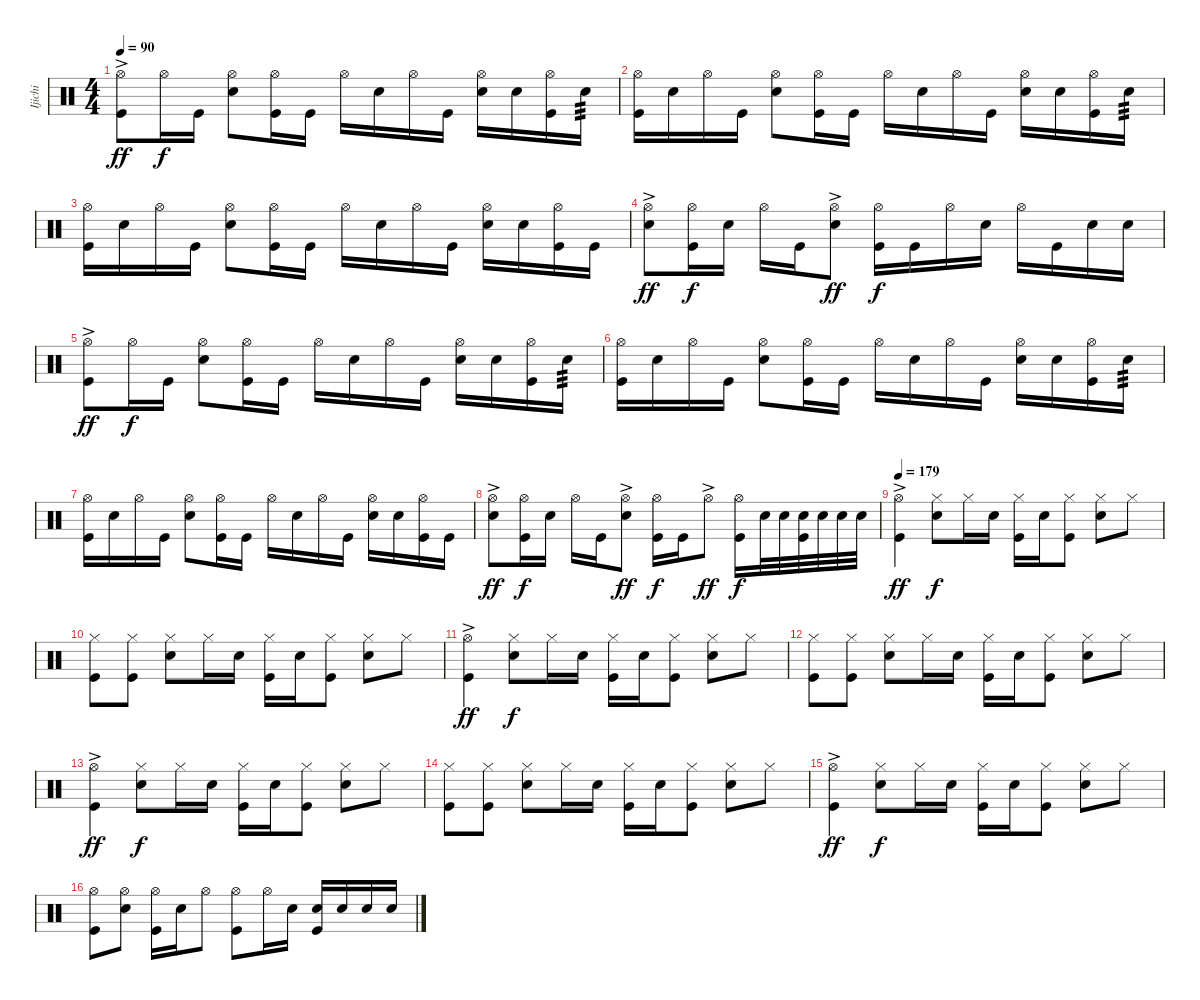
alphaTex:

\track ("Ijichi" "Ijichi") {instrument percussion}
\staff {score}
\articulation defaults
\ts (4 4)
\tempo 90
\clef neutral
\ks c
("Hi-Hat (open)"{ac} "Kick (hit)").8{dy ff} "Hi-Hat (open)".16{dy f} "Kick (hit)".16 ("Hi-Hat (open)" "Snare (hit) 2").8 ("Hi-Hat (open)" "Kick (hit)").16 "Kick (hit)".16 "Hi-Hat (open)".16 "Snare (hit) 2".16 "Hi-Hat (open)".16 "Kick (hit)".16 ("Hi-Hat (open)" "Snare (hit) 2").16 "Snare (hit) 2".16 ("Hi-Hat (open)" "Kick (hit)").16 "Snare (hit) 2".16{tp 3} |
("Hi-Hat (open)" "Kick (hit)").16 "Snare (hit) 2".16 "Hi-Hat (open)".16 "Kick (hit)".16 ("Hi-Hat (open)" "Snare (hit) 2").8 ("Hi-Hat (open)" "Kick (hit)").16 "Kick (hit)".16 "Hi-Hat (open)".16 "Snare (hit) 2".16 "Hi-Hat (open)".16 "Kick (hit)".16 ("Hi-Hat (open)" "Snare (hit) 2").16 "Snare (hit) 2".16 ("Hi-Hat (open)" "Kick (hit)").16 "Snare (hit) 2".16{tp 3} |
("Hi-Hat (open)" "Kick (hit)").16 "Snare (hit) 2".16 "Hi-Hat (open)".16 "Kick (hit)".16 ("Hi-Hat (open)" "Snare (hit) 2").8 ("Hi-Hat (open)" "Kick (hit)").16 "Kick (hit)".16 "Hi-Hat (open)".16 "Snare (hit) 2".16 "Hi-Hat (open)".16 "Kick (hit)".16 ("Hi-Hat (open)" "Snare (hit) 2").16 "Snare (hit) 2".16 ("Hi-Hat (open)" "Kick (hit)").16 "Kick (hit)".16 |
("Hi-Hat (open)"{ac} "Snare (hit) 2").8{dy ff} ("Hi-Hat (open)" "Kick (hit)").16{dy f} "Snare (hit) 2".16 "Hi-Hat (open)".16 "Kick (hit)".16 ("Hi-Hat (open)"{ac} "Snare (hit) 2").8{dy ff} ("Hi-Hat (open)" "Kick (hit)").16{dy f} "Kick (hit)".16 "Hi-Hat (open)".16 "Snare (hit) 2".16 "Hi-Hat (open)".16 "Kick (hit)".16 "Snare (hit) 2".16 "Snare (hit) 2".16 |
("Hi-Hat (open)"{ac} "Kick (hit)").8{dy ff} "Hi-Hat (open)".16{dy f} "Kick (hit)".16 ("Hi-Hat (open)" "Snare (hit) 2").8 ("Hi-Hat (open)" "Kick (hit)").16 "Kick (hit)".16 "Hi-Hat (open)".16 "Snare (hit) 2".16 "Hi-Hat (open)".16 "Kick (hit)".16 ("Hi-Hat (open)" "Snare (hit) 2").16 "Snare (hit) 2".16 ("Hi-Hat (open)" "Kick (hit)").16 "Snare (hit) 2".16{tp 3} |
("Hi-Hat (open)" "Kick (hit)").16 "Snare (hit) 2".16 "Hi-Hat (open)".16 "Kick (hit)".16 ("Hi-Hat (open)" "Snare (hit) 2").8 ("Hi-Hat (open)" "Kick (hit)").16 "Kick (hit)".16 "Hi-Hat (open)".16 "Snare (hit) 2".16 "Hi-Hat (open)".16 "Kick (hit)".16 ("Hi-Hat (open)" "Snare (hit) 2").16 "Snare (hit) 2".16 ("Hi-Hat (open)" "Kick (hit)").16 "Snare (hit) 2".16{tp 3} |
("Hi-Hat (open)" "Kick (hit)").16 "Snare (hit) 2".16 "Hi-Hat (open)".16 "Kick (hit)".16 ("Hi-Hat (open)" "Snare (hit) 2").8 ("Hi-Hat (open)" "Kick (hit)").16 "Kick (hit)".16 "Hi-Hat (open)".16 "Snare (hit) 2".16 "Hi-Hat (open)".16 "Kick (hit)".16 ("Hi-Hat (open)" "Snare (hit) 2").16 "Snare (hit) 2".16 ("Hi-Hat (open)" "Kick (hit)").16 "Kick (hit)".16 |
("Hi-Hat (open)"{ac} "Snare (hit) 2").8{dy ff} ("Hi-Hat (open)" "Kick (hit)").16{dy f} "Snare (hit) 2".16 "Hi-Hat (open)".16 "Kick (hit)".16 ("Hi-Hat (open)"{ac} "Snare (hit) 2").8{dy ff} ("Hi-Hat (open)" "Kick (hit)").16{dy f} "Kick (hit)".16 "Hi-Hat (open)"{ac}.8{dy ff} ("Hi-Hat (open)" "Kick (hit)").16{dy f} "Snare (hit) 2".32 "Snare (hit) 2".32 ("Snare (hit) 2" "Kick (hit)").32 "Snare (hit) 2".32 "Snare (hit) 2".32 "Snare (hit) 2".32 |
\tempo 179
("Hi-Hat (open)"{ac} "Kick (hit)").4{dy ff} ("Hi-Hat (closed)" "Snare (hit) 2").8{dy f} "Hi-Hat (closed)".16 "Snare (hit) 2".16 ("Hi-Hat (closed)" "Kick (hit)").16 "Snare (hit) 2".16 ("Hi-Hat (closed)" "Kick (hit)").8 ("Hi-Hat (closed)" "Snare (hit) 2").8 "Hi-Hat (closed)".8 |
("Hi-Hat (closed)" "Kick (hit)").8 ("Hi-Hat (closed)" "Kick (hit)").8 ("Hi-Hat (closed)" "Snare (hit) 2").8 "Hi-Hat (closed)".16 "Snare (hit) 2".16 ("Hi-Hat (closed)" "Kick (hit)").16 "Snare (hit) 2".16 ("Hi-Hat (closed)" "Kick (hit)").8 ("Hi-Hat (closed)" "Snare (hit) 2").8 "Hi-Hat (closed)".8 |
("Hi-Hat (open)"{ac} "Kick (hit)").4{dy ff} ("Hi-Hat (closed)" "Snare (hit) 2").8{dy f} "Hi-Hat (closed)".16 "Snare (hit) 2".16 ("Hi-Hat (closed)" "Kick (hit)").16 "Snare (hit) 2".16 ("Hi-Hat (closed)" "Kick (hit)").8 ("Hi-Hat (closed)" "Snare (hit) 2").8 "Hi-Hat (closed)".8 |
("Hi-Hat (closed)" "Kick (hit)").8 ("Hi-Hat (closed)" "Kick (hit)").8 ("Hi-Hat (closed)" "Snare (hit) 2").8 "Hi-Hat (closed)".16 "Snare (hit) 2".16 ("Hi-Hat (closed)" "Kick (hit)").16 "Snare (hit) 2".16 ("Hi-Hat (closed)" "Kick (hit)").8 ("Hi-Hat (closed)" "Snare (hit) 2").8 "Hi-Hat (closed)".8 |
("Hi-Hat (open)"{ac} "Kick (hit)").4{dy ff} ("Hi-Hat (closed)" "Snare (hit) 2").8{dy f} "Hi-Hat (closed)".16 "Snare (hit) 2".16 ("Hi-Hat (closed)" "Kick (hit)").16 "Snare (hit) 2".16 ("Hi-Hat (closed)" "Kick (hit)").8 ("Hi-Hat (closed)" "Snare (hit) 2").8 "Hi-Hat (closed)".8 |
("Hi-Hat (closed)" "Kick (hit)").8 ("Hi-Hat (closed)" "Kick (hit)").8 ("Hi-Hat (closed)" "Snare (hit) 2").8 "Hi-Hat (closed)".16 "Snare (hit) 2".16 ("Hi-Hat (closed)" "Kick (hit)").16 "Snare (hit) 2".16 ("Hi-Hat (closed)" "Kick (hit)").8 ("Hi-Hat (closed)" "Snare (hit) 2").8 "Hi-Hat (closed)".8 |
("Hi-Hat (open)"{ac} "Kick (hit)").4{dy ff} ("Hi-Hat (closed)" "Snare (hit) 2").8{dy f} "Hi-Hat (closed)".16 "Snare (hit) 2".16 ("Hi-Hat (closed)" "Kick (hit)").16 "Snare (hit) 2".16 ("Hi-Hat (closed)" "Kick (hit)").8 ("Hi-Hat (closed)" "Snare (hit) 2").8 "Hi-Hat (closed)".8 |
("Hi-Hat (open)" "Kick (hit)").8 ("Hi-Hat (open)" "Snare (hit) 2").8 ("Hi-Hat (open)" "Kick (hit)").16 "Snare (hit) 2".16 "Hi-Hat (open)".8 ("Hi-Hat (open)" "Kick (hit)").8 "Hi-Hat (open)".16 "Snare (hit) 2".16 ("Snare (hit) 2" "Kick (hit)").16 "Snare (hit) 2".16 "Snare (hit) 2".16 "Snare (hit) 2".16
